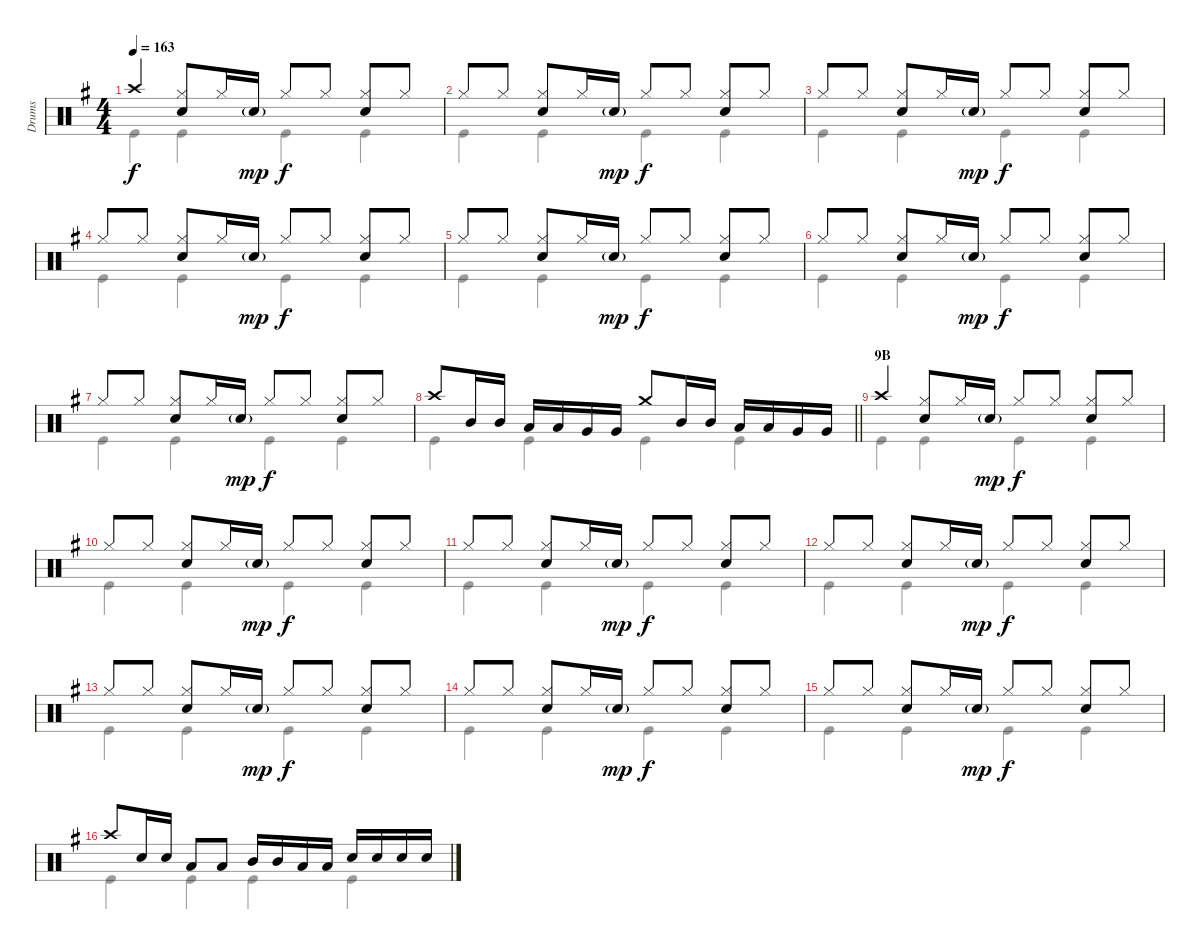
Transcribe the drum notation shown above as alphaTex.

\track ("Drums" "Drums") {instrument percussion}
\staff {score}
\articulation defaults
\voice
\ts (4 4)
\tempo 163
\clef neutral
\ks g "Crash high (hit)".4{dy f}
("Hi-Hat (closed)" "Snare (hit) 2").8 "Hi-Hat (closed)".16 "Snare (hit) 2"{g}.16{dy mp} "Hi-Hat (closed)".8{dy f} "Hi-Hat (closed)".8 ("Hi-Hat (closed)" "Snare (hit) 2").8 "Hi-Hat (closed)".8 |
"Hi-Hat (closed)".8 "Hi-Hat (closed)".8 ("Hi-Hat (closed)" "Snare (hit) 2").8 "Hi-Hat (closed)".16 "Snare (hit) 2"{g}.16{dy mp} "Hi-Hat (closed)".8{dy f} "Hi-Hat (closed)".8 ("Hi-Hat (closed)" "Snare (hit) 2").8 "Hi-Hat (closed)".8 |
"Hi-Hat (closed)".8 "Hi-Hat (closed)".8 ("Hi-Hat (closed)" "Snare (hit) 2").8 "Hi-Hat (closed)".16 "Snare (hit) 2"{g}.16{dy mp} "Hi-Hat (closed)".8{dy f} "Hi-Hat (closed)".8 ("Hi-Hat (closed)" "Snare (hit) 2").8 "Hi-Hat (closed)".8 |
"Hi-Hat (closed)".8 "Hi-Hat (closed)".8 ("Hi-Hat (closed)" "Snare (hit) 2").8 "Hi-Hat (closed)".16 "Snare (hit) 2"{g}.16{dy mp} "Hi-Hat (closed)".8{dy f} "Hi-Hat (closed)".8 ("Hi-Hat (closed)" "Snare (hit) 2").8 "Hi-Hat (closed)".8 |
"Hi-Hat (closed)".8 "Hi-Hat (closed)".8 ("Hi-Hat (closed)" "Snare (hit) 2").8 "Hi-Hat (closed)".16 "Snare (hit) 2"{g}.16{dy mp} "Hi-Hat (closed)".8{dy f} "Hi-Hat (closed)".8 ("Hi-Hat (closed)" "Snare (hit) 2").8 "Hi-Hat (closed)".8 |
"Hi-Hat (closed)".8 "Hi-Hat (closed)".8 ("Hi-Hat (closed)" "Snare (hit) 2").8 "Hi-Hat (closed)".16 "Snare (hit) 2"{g}.16{dy mp} "Hi-Hat (closed)".8{dy f} "Hi-Hat (closed)".8 ("Hi-Hat (closed)" "Snare (hit) 2").8 "Hi-Hat (closed)".8 |
"Hi-Hat (closed)".8 "Hi-Hat (closed)".8 ("Hi-Hat (closed)" "Snare (hit) 2").8 "Hi-Hat (closed)".16 "Snare (hit) 2"{g}.16{dy mp} "Hi-Hat (closed)".8{dy f} "Hi-Hat (closed)".8 ("Hi-Hat (closed)" "Snare (hit) 2").8 "Hi-Hat (closed)".8 |
\barLineRight lightlight "Crash high (hit)".8 "Mid Tom (hit)".16 "Mid Tom (hit)".16 "Low Tom (hit)".16 "Low Tom (hit)".16 "Very Low Tom (hit)".16 "Very Low Tom (hit)".16 "Crash medium (hit)".8 "Mid Tom (hit)".16 "Mid Tom (hit)".16 "Low Tom (hit)".16 "Low Tom (hit)".16 "Very Low Tom (hit)".16 "Very Low Tom (hit)".16
|
\section ("" "9B")
"Crash high (hit)".4 ("Hi-Hat (closed)" "Snare (hit) 2").8 "Hi-Hat (closed)".16 "Snare (hit) 2"{g}.16{dy mp} "Hi-Hat (closed)".8{dy f} "Hi-Hat (closed)".8 ("Hi-Hat (closed)" "Snare (hit) 2").8 "Hi-Hat (closed)".8 |
"Hi-Hat (closed)".8 "Hi-Hat (closed)".8 ("Hi-Hat (closed)" "Snare (hit) 2").8 "Hi-Hat (closed)".16 "Snare (hit) 2"{g}.16{dy mp} "Hi-Hat (closed)".8{dy f} "Hi-Hat (closed)".8 ("Hi-Hat (closed)" "Snare (hit) 2").8 "Hi-Hat (closed)".8 |
"Hi-Hat (closed)".8 "Hi-Hat (closed)".8 ("Hi-Hat (closed)" "Snare (hit) 2").8 "Hi-Hat (closed)".16 "Snare (hit) 2"{g}.16{dy mp} "Hi-Hat (closed)".8{dy f} "Hi-Hat (closed)".8 ("Hi-Hat (closed)" "Snare (hit) 2").8 "Hi-Hat (closed)".8 |
"Hi-Hat (closed)".8 "Hi-Hat (closed)".8 ("Hi-Hat (closed)" "Snare (hit) 2").8 "Hi-Hat (closed)".16 "Snare (hit) 2"{g}.16{dy mp} "Hi-Hat (closed)".8{dy f} "Hi-Hat (closed)".8 ("Hi-Hat (closed)" "Snare (hit) 2").8 "Hi-Hat (closed)".8 |
"Hi-Hat (closed)".8 "Hi-Hat (closed)".8 ("Hi-Hat (closed)" "Snare (hit) 2").8 "Hi-Hat (closed)".16 "Snare (hit) 2"{g}.16{dy mp} "Hi-Hat (closed)".8{dy f} "Hi-Hat (closed)".8 ("Hi-Hat (closed)" "Snare (hit) 2").8 "Hi-Hat (closed)".8 |
"Hi-Hat (closed)".8 "Hi-Hat (closed)".8 ("Hi-Hat (closed)" "Snare (hit) 2").8 "Hi-Hat (closed)".16 "Snare (hit) 2"{g}.16{dy mp} "Hi-Hat (closed)".8{dy f} "Hi-Hat (closed)".8 ("Hi-Hat (closed)" "Snare (hit) 2").8 "Hi-Hat (closed)".8 |
"Hi-Hat (closed)".8 "Hi-Hat (closed)".8 ("Hi-Hat (closed)" "Snare (hit) 2").8 "Hi-Hat (closed)".16 "Snare (hit) 2"{g}.16{dy mp} "Hi-Hat (closed)".8{dy f} "Hi-Hat (closed)".8 ("Hi-Hat (closed)" "Snare (hit) 2").8 "Hi-Hat (closed)".8 |
"Crash high (hit)".8 "Snare (hit) 2".16 "Snare (hit) 2".16 "Low Tom (hit)".8 "Low Tom (hit)".8 "Mid Tom (hit)".16 "Mid Tom (hit)".16 "Low Tom (hit)".16 "Low Tom (hit)".16 "Snare (hit) 2".16 "Snare (hit) 2".16 "Snare (hit) 2".16 "Snare (hit) 2".16
\voice
\clef neutral
\ottava regular
\simile none
\ks g "Kick (hit)".4{dy f} "Kick (hit)".4 "Kick (hit)".4 "Kick (hit)".4
|
"Kick (hit)".4 "Kick (hit)".4 "Kick (hit)".4 "Kick (hit)".4 |
"Kick (hit)".4 "Kick (hit)".4 "Kick (hit)".4 "Kick (hit)".4 |
"Kick (hit)".4 "Kick (hit)".4 "Kick (hit)".4 "Kick (hit)".4 |
"Kick (hit)".4 "Kick (hit)".4 "Kick (hit)".4 "Kick (hit)".4 |
"Kick (hit)".4 "Kick (hit)".4 "Kick (hit)".4 "Kick (hit)".4 |
"Kick (hit)".4 "Kick (hit)".4 "Kick (hit)".4 "Kick (hit)".4 |
\barLineRight lightlight "Kick (hit)".4 "Kick (hit)".4 "Kick (hit)".4 "Kick (hit)".4
|
"Kick (hit)".4 "Kick (hit)".4 "Kick (hit)".4 "Kick (hit)".4 |
"Kick (hit)".4 "Kick (hit)".4 "Kick (hit)".4 "Kick (hit)".4 |
"Kick (hit)".4 "Kick (hit)".4 "Kick (hit)".4 "Kick (hit)".4 |
"Kick (hit)".4 "Kick (hit)".4 "Kick (hit)".4 "Kick (hit)".4 |
"Kick (hit)".4 "Kick (hit)".4 "Kick (hit)".4 "Kick (hit)".4 |
"Kick (hit)".4 "Kick (hit)".4 "Kick (hit)".4 "Kick (hit)".4 |
"Kick (hit)".4 "Kick (hit)".4 "Kick (hit)".4 "Kick (hit)".4 |
"Kick (hit)".4 "Kick (hit)".4 "Kick (hit)".4 "Kick (hit)".4
